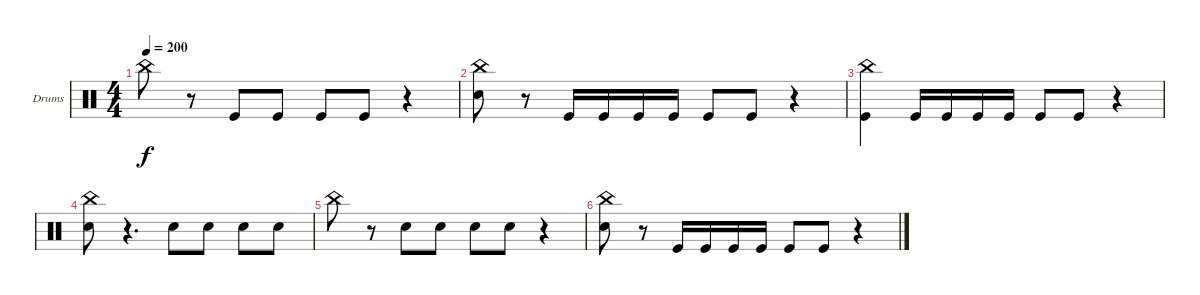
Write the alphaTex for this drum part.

\defaultSystemsLayout 4
\bracketExtendMode groupsimilarinstruments
\firstSystemTrackNameOrientation horizontal
\otherSystemsTrackNameOrientation horizontal
\track ("Drumkit" "Drums") {instrument percussion}
\staff {score}
\articulation defaults
\ts (4 4)
\tempo 200
\clef neutral
\ks c "China (hit)".8{dy f}
r.8 "Kick (hit)".8 "Kick (hit)".8 "Kick (hit)".8 "Kick (hit)".8 r.4 |
("Snare (hit) 2" "China (hit)").8 r.8 "Kick (hit)".16 "Kick (hit)".16 "Kick (hit)".16 "Kick (hit)".16 "Kick (hit)".8 "Kick (hit)".8 r.4 |
("Kick (hit)" "China (hit)").4 "Kick (hit)".16 "Kick (hit)".16 "Kick (hit)".16 "Kick (hit)".16 "Kick (hit)".8 "Kick (hit)".8 r.4 |
("Snare (hit) 2" "China (hit)").8 r.4{d} "Snare (hit) 2".8 "Snare (hit) 2".8 "Snare (hit) 2".8 "Snare (hit) 2".8 |
"China (hit)".8 r.8 "Snare (hit) 2".8 "Snare (hit) 2".8 "Snare (hit) 2".8 "Snare (hit) 2".8 r.4 |
("Snare (hit) 2" "China (hit)").8 r.8 "Kick (hit)".16 "Kick (hit)".16 "Kick (hit)".16 "Kick (hit)".16 "Kick (hit)".8 "Kick (hit)".8 r.4
